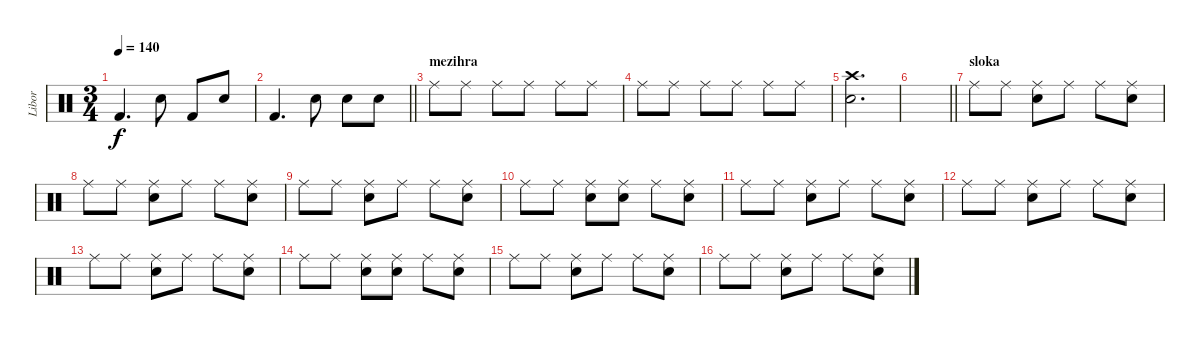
\track ("Libor" "Libor") {instrument percussion}
\staff {score}
\articulation defaults
\ts (3 4)
\tempo 140
\clef neutral
\ks c "Kick (hit) 2".4{d dy f} "Snare (hit) 2".8 "Kick (hit) 2".8 "Snare (hit) 2".8
|
\barLineRight lightlight "Kick (hit) 2".4{d} "Snare (hit) 2".8 "Snare (hit) 2".8 "Snare (hit) 2".8
|
\section ("" "mezihra")
"Ride (middle)".8 "Ride (middle)".8 "Ride (middle)".8 "Ride (middle)".8 "Ride (middle)".8 "Ride (middle)".8 |
"Ride (middle)".8 "Ride (middle)".8 "Ride (middle)".8 "Ride (middle)".8 "Ride (middle)".8 "Ride (middle)".8 |
("Crash high (hit)" "Snare (hit) 2").2{d} |
\barLineRight lightlight
|
\section ("" "sloka")
"Ride (middle)".8 "Ride (middle)".8 ("Ride (middle)" "Snare (hit) 2").8 "Ride (middle)".8 "Ride (middle)".8 ("Ride (middle)" "Snare (hit) 2").8 |
"Ride (middle)".8 "Ride (middle)".8 ("Ride (middle)" "Snare (hit) 2").8 "Ride (middle)".8 "Ride (middle)".8 ("Ride (middle)" "Snare (hit) 2").8 |
"Ride (middle)".8 "Ride (middle)".8 ("Ride (middle)" "Snare (hit) 2").8 "Ride (middle)".8 "Ride (middle)".8 ("Ride (middle)" "Snare (hit) 2").8 |
"Ride (middle)".8 "Ride (middle)".8 ("Ride (middle)" "Snare (hit) 2").8 ("Ride (middle)" "Snare (hit) 2").8 "Ride (middle)".8 ("Ride (middle)" "Snare (hit) 2").8 |
"Ride (middle)".8 "Ride (middle)".8 ("Ride (middle)" "Snare (hit) 2").8 "Ride (middle)".8 "Ride (middle)".8 ("Ride (middle)" "Snare (hit) 2").8 |
"Ride (middle)".8 "Ride (middle)".8 ("Ride (middle)" "Snare (hit) 2").8 "Ride (middle)".8 "Ride (middle)".8 ("Ride (middle)" "Snare (hit) 2").8 |
"Ride (middle)".8 "Ride (middle)".8 ("Ride (middle)" "Snare (hit) 2").8 "Ride (middle)".8 "Ride (middle)".8 ("Ride (middle)" "Snare (hit) 2").8 |
"Ride (middle)".8 "Ride (middle)".8 ("Ride (middle)" "Snare (hit) 2").8 ("Ride (middle)" "Snare (hit) 2").8 "Ride (middle)".8 ("Ride (middle)" "Snare (hit) 2").8 |
"Ride (middle)".8 "Ride (middle)".8 ("Ride (middle)" "Snare (hit) 2").8 "Ride (middle)".8 "Ride (middle)".8 ("Ride (middle)" "Snare (hit) 2").8 |
"Ride (middle)".8 "Ride (middle)".8 ("Ride (middle)" "Snare (hit) 2").8 "Ride (middle)".8 "Ride (middle)".8 ("Ride (middle)" "Snare (hit) 2").8
